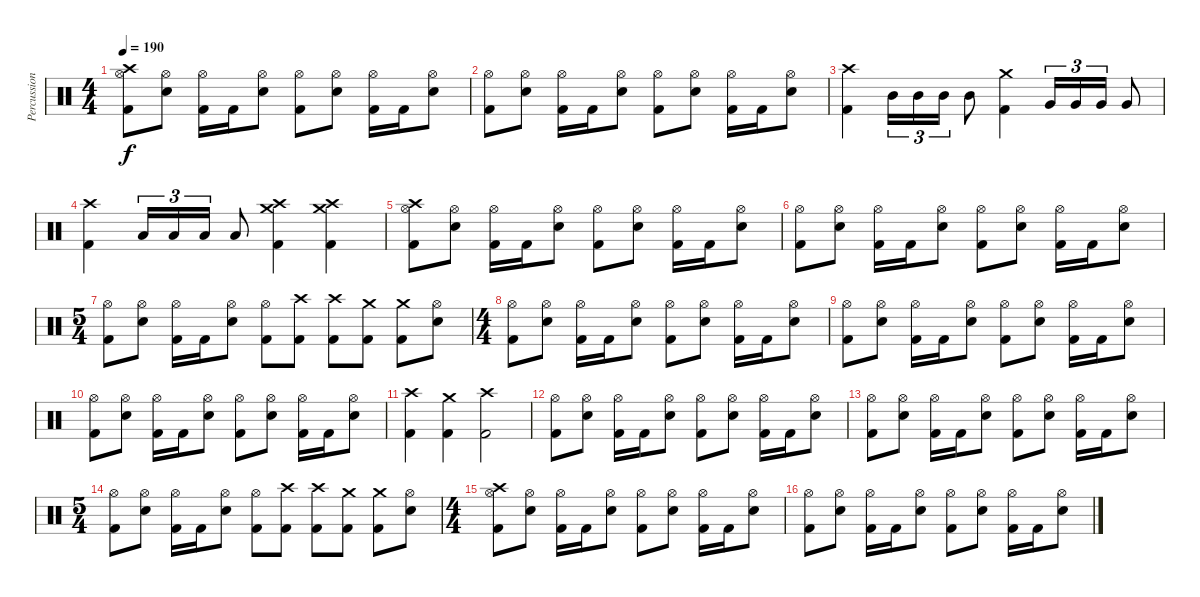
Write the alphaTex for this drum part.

\track ("Percussion" "Percussion") {instrument percussion}
\staff {score}
\articulation defaults
\ts (4 4)
\tempo 190
\clef neutral
\ks c
("Crash high (hit)" "Hi-Hat (open)" "Kick (hit) 2").8{dy f} ("Hi-Hat (open)" "Snare (hit) 2").8 ("Hi-Hat (open)" "Kick (hit) 2").16 "Kick (hit) 2".16 ("Hi-Hat (open)" "Snare (hit) 2").8 ("Hi-Hat (open)" "Kick (hit) 2").8 ("Hi-Hat (open)" "Snare (hit) 2").8 ("Hi-Hat (open)" "Kick (hit) 2").16 "Kick (hit) 2".16 ("Hi-Hat (open)" "Snare (hit) 2").8 |
("Hi-Hat (open)" "Kick (hit) 2").8 ("Hi-Hat (open)" "Snare (hit) 2").8 ("Hi-Hat (open)" "Kick (hit) 2").16 "Kick (hit) 2".16 ("Hi-Hat (open)" "Snare (hit) 2").8 ("Hi-Hat (open)" "Kick (hit) 2").8 ("Hi-Hat (open)" "Snare (hit) 2").8 ("Hi-Hat (open)" "Kick (hit) 2").16 "Kick (hit) 2".16 ("Hi-Hat (open)" "Snare (hit) 2").8 |
("Crash high (hit)" "Kick (hit) 2").4 "Mid Tom (hit)".16{tu (3 2)} "Mid Tom (hit)".16{tu (3 2)} "Mid Tom (hit)".16{tu (3 2)} "Mid Tom (hit)".8 ("Crash medium (hit)" "Kick (hit) 2").4 "Very Low Tom (hit)".16{tu (3 2)} "Very Low Tom (hit)".16{tu (3 2)} "Very Low Tom (hit)".16{tu (3 2)} "Very Low Tom (hit)".8 |
("Crash high (hit)" "Kick (hit) 2").4 "Low Floor Tom (hit)".16{tu (3 2)} "Low Floor Tom (hit)".16{tu (3 2)} "Low Floor Tom (hit)".16{tu (3 2)} "Low Floor Tom (hit)".8 ("Crash medium (hit)" "Crash high (hit)" "Kick (hit) 2").4 ("Crash medium (hit)" "Crash high (hit)" "Kick (hit) 2").4 |
("Crash high (hit)" "Hi-Hat (open)" "Kick (hit) 2").8 ("Hi-Hat (open)" "Snare (hit) 2").8 ("Hi-Hat (open)" "Kick (hit) 2").16 "Kick (hit) 2".16 ("Hi-Hat (open)" "Snare (hit) 2").8 ("Hi-Hat (open)" "Kick (hit) 2").8 ("Hi-Hat (open)" "Snare (hit) 2").8 ("Hi-Hat (open)" "Kick (hit) 2").16 "Kick (hit) 2".16 ("Hi-Hat (open)" "Snare (hit) 2").8 |
("Hi-Hat (open)" "Kick (hit) 2").8 ("Hi-Hat (open)" "Snare (hit) 2").8 ("Hi-Hat (open)" "Kick (hit) 2").16 "Kick (hit) 2".16 ("Hi-Hat (open)" "Snare (hit) 2").8 ("Hi-Hat (open)" "Kick (hit) 2").8 ("Hi-Hat (open)" "Snare (hit) 2").8 ("Hi-Hat (open)" "Kick (hit) 2").16 "Kick (hit) 2".16 ("Hi-Hat (open)" "Snare (hit) 2").8 |
\ts (5 4)
("Hi-Hat (open)" "Kick (hit) 2").8 ("Hi-Hat (open)" "Snare (hit) 2").8 ("Hi-Hat (open)" "Kick (hit) 2").16 "Kick (hit) 2".16 ("Hi-Hat (open)" "Snare (hit) 2").8 ("Hi-Hat (open)" "Kick (hit) 2").8 ("Crash high (hit)" "Kick (hit) 2").8 ("Crash high (hit)" "Kick (hit) 2").8 ("Crash medium (hit)" "Kick (hit) 2").8 ("Crash medium (hit)" "Kick (hit) 2").8 ("Hi-Hat (open)" "Snare (hit) 2").8 |
\ts (4 4)
("Hi-Hat (open)" "Kick (hit) 2").8 ("Hi-Hat (open)" "Snare (hit) 2").8 ("Hi-Hat (open)" "Kick (hit) 2").16 "Kick (hit) 2".16 ("Hi-Hat (open)" "Snare (hit) 2").8 ("Hi-Hat (open)" "Kick (hit) 2").8 ("Hi-Hat (open)" "Snare (hit) 2").8 ("Hi-Hat (open)" "Kick (hit) 2").16 "Kick (hit) 2".16 ("Hi-Hat (open)" "Snare (hit) 2").8 |
("Hi-Hat (open)" "Kick (hit) 2").8 ("Hi-Hat (open)" "Snare (hit) 2").8 ("Hi-Hat (open)" "Kick (hit) 2").16 "Kick (hit) 2".16 ("Hi-Hat (open)" "Snare (hit) 2").8 ("Hi-Hat (open)" "Kick (hit) 2").8 ("Hi-Hat (open)" "Snare (hit) 2").8 ("Hi-Hat (open)" "Kick (hit) 2").16 "Kick (hit) 2".16 ("Hi-Hat (open)" "Snare (hit) 2").8 |
("Hi-Hat (open)" "Kick (hit) 2").8 ("Hi-Hat (open)" "Snare (hit) 2").8 ("Hi-Hat (open)" "Kick (hit) 2").16 "Kick (hit) 2".16 ("Hi-Hat (open)" "Snare (hit) 2").8 ("Hi-Hat (open)" "Kick (hit) 2").8 ("Hi-Hat (open)" "Snare (hit) 2").8 ("Hi-Hat (open)" "Kick (hit) 2").16 "Kick (hit) 2".16 ("Hi-Hat (open)" "Snare (hit) 2").8 |
("Crash high (hit)" "Kick (hit) 2").4 ("Crash medium (hit)" "Kick (hit) 2").4 ("Crash high (hit)" "Kick (hit) 2").2 |
("Hi-Hat (open)" "Kick (hit) 2").8 ("Hi-Hat (open)" "Snare (hit) 2").8 ("Hi-Hat (open)" "Kick (hit) 2").16 "Kick (hit) 2".16 ("Hi-Hat (open)" "Snare (hit) 2").8 ("Hi-Hat (open)" "Kick (hit) 2").8 ("Hi-Hat (open)" "Snare (hit) 2").8 ("Hi-Hat (open)" "Kick (hit) 2").16 "Kick (hit) 2".16 ("Hi-Hat (open)" "Snare (hit) 2").8 |
("Hi-Hat (open)" "Kick (hit) 2").8 ("Hi-Hat (open)" "Snare (hit) 2").8 ("Hi-Hat (open)" "Kick (hit) 2").16 "Kick (hit) 2".16 ("Hi-Hat (open)" "Snare (hit) 2").8 ("Hi-Hat (open)" "Kick (hit) 2").8 ("Hi-Hat (open)" "Snare (hit) 2").8 ("Hi-Hat (open)" "Kick (hit) 2").16 "Kick (hit) 2".16 ("Hi-Hat (open)" "Snare (hit) 2").8 |
\ts (5 4)
("Hi-Hat (open)" "Kick (hit) 2").8 ("Hi-Hat (open)" "Snare (hit) 2").8 ("Hi-Hat (open)" "Kick (hit) 2").16 "Kick (hit) 2".16 ("Hi-Hat (open)" "Snare (hit) 2").8 ("Hi-Hat (open)" "Kick (hit) 2").8 ("Crash high (hit)" "Kick (hit) 2").8 ("Crash high (hit)" "Kick (hit) 2").8 ("Crash medium (hit)" "Kick (hit) 2").8 ("Crash medium (hit)" "Kick (hit) 2").8 ("Hi-Hat (open)" "Snare (hit) 2").8 |
\ts (4 4)
("Crash high (hit)" "Hi-Hat (open)" "Kick (hit) 2").8 ("Hi-Hat (open)" "Snare (hit) 2").8 ("Hi-Hat (open)" "Kick (hit) 2").16 "Kick (hit) 2".16 ("Hi-Hat (open)" "Snare (hit) 2").8 ("Hi-Hat (open)" "Kick (hit) 2").8 ("Hi-Hat (open)" "Snare (hit) 2").8 ("Hi-Hat (open)" "Kick (hit) 2").16 "Kick (hit) 2".16 ("Hi-Hat (open)" "Snare (hit) 2").8 |
("Hi-Hat (open)" "Kick (hit) 2").8 ("Hi-Hat (open)" "Snare (hit) 2").8 ("Hi-Hat (open)" "Kick (hit) 2").16 "Kick (hit) 2".16 ("Hi-Hat (open)" "Snare (hit) 2").8 ("Hi-Hat (open)" "Kick (hit) 2").8 ("Hi-Hat (open)" "Snare (hit) 2").8 ("Hi-Hat (open)" "Kick (hit) 2").16 "Kick (hit) 2".16 ("Hi-Hat (open)" "Snare (hit) 2").8
